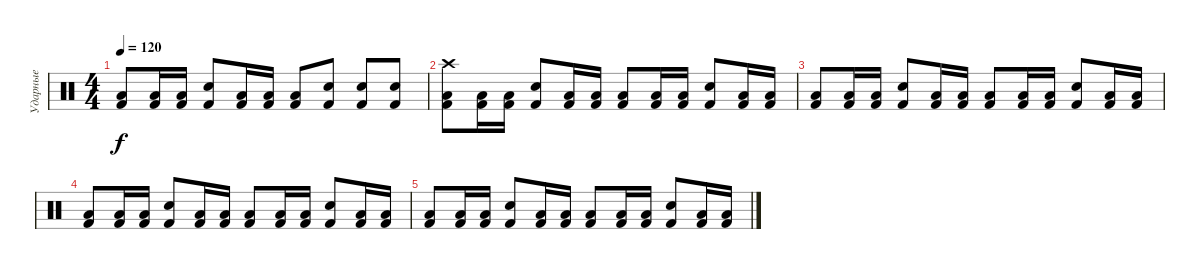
\track ("Ударные" "Ударные") {instrument percussion}
\staff {score}
\articulation defaults
\ts (4 4)
\tempo 120
\clef neutral
\ks c
("Kick (hit) 2" "Low Tom (hit)").8{dy f} ("Kick (hit) 2" "Low Tom (hit)").16 ("Kick (hit) 2" "Low Tom (hit)").16 ("Kick (hit) 2" "Snare (hit) 2").8 ("Kick (hit) 2" "Low Tom (hit)").16 ("Kick (hit) 2" "Low Tom (hit)").16 ("Kick (hit) 2" "Low Tom (hit)").8 ("Kick (hit) 2" "Snare (hit) 2").8 ("Kick (hit) 2" "Snare (hit) 2").8 ("Kick (hit) 2" "Snare (hit) 2").8 |
("Kick (hit) 2" "Crash high (hit)" "Low Tom (hit)").8 ("Kick (hit) 2" "Low Tom (hit)").16 ("Kick (hit) 2" "Low Tom (hit)").16 ("Kick (hit) 2" "Snare (hit) 2").8 ("Kick (hit) 2" "Low Tom (hit)").16 ("Kick (hit) 2" "Low Tom (hit)").16 ("Kick (hit) 2" "Low Tom (hit)").8 ("Kick (hit) 2" "Low Tom (hit)").16 ("Kick (hit) 2" "Low Tom (hit)").16 ("Kick (hit) 2" "Snare (hit) 2").8 ("Kick (hit) 2" "Low Tom (hit)").16 ("Kick (hit) 2" "Low Tom (hit)").16 |
("Kick (hit) 2" "Low Tom (hit)").8 ("Kick (hit) 2" "Low Tom (hit)").16 ("Kick (hit) 2" "Low Tom (hit)").16 ("Kick (hit) 2" "Snare (hit) 2").8 ("Kick (hit) 2" "Low Tom (hit)").16 ("Kick (hit) 2" "Low Tom (hit)").16 ("Kick (hit) 2" "Low Tom (hit)").8 ("Kick (hit) 2" "Low Tom (hit)").16 ("Kick (hit) 2" "Low Tom (hit)").16 ("Kick (hit) 2" "Snare (hit) 2").8 ("Kick (hit) 2" "Low Tom (hit)").16 ("Kick (hit) 2" "Low Tom (hit)").16 |
("Kick (hit) 2" "Low Tom (hit)").8 ("Kick (hit) 2" "Low Tom (hit)").16 ("Kick (hit) 2" "Low Tom (hit)").16 ("Kick (hit) 2" "Snare (hit) 2").8 ("Kick (hit) 2" "Low Tom (hit)").16 ("Kick (hit) 2" "Low Tom (hit)").16 ("Kick (hit) 2" "Low Tom (hit)").8 ("Kick (hit) 2" "Low Tom (hit)").16 ("Kick (hit) 2" "Low Tom (hit)").16 ("Kick (hit) 2" "Snare (hit) 2").8 ("Kick (hit) 2" "Low Tom (hit)").16 ("Kick (hit) 2" "Low Tom (hit)").16 |
("Kick (hit) 2" "Low Tom (hit)").8 ("Kick (hit) 2" "Low Tom (hit)").16 ("Kick (hit) 2" "Low Tom (hit)").16 ("Kick (hit) 2" "Snare (hit) 2").8 ("Kick (hit) 2" "Low Tom (hit)").16 ("Kick (hit) 2" "Low Tom (hit)").16 ("Kick (hit) 2" "Low Tom (hit)").8 ("Kick (hit) 2" "Low Tom (hit)").16 ("Kick (hit) 2" "Low Tom (hit)").16 ("Kick (hit) 2" "Snare (hit) 2").8 ("Kick (hit) 2" "Low Tom (hit)").16 ("Kick (hit) 2" "Low Tom (hit)").16
